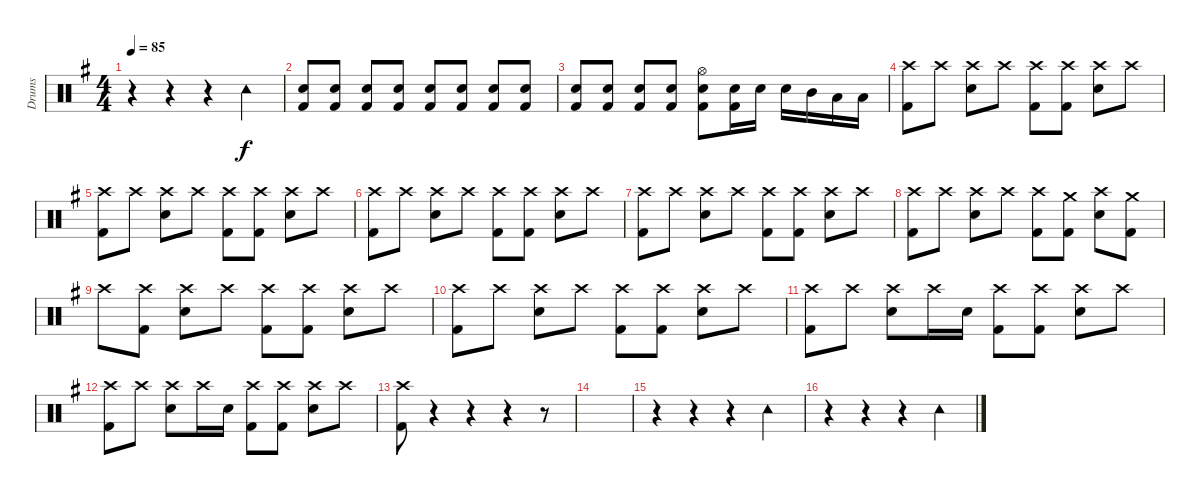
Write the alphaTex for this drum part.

\track ("Drums" "Drums") {instrument percussion}
\staff {score}
\articulation defaults
\ts (4 4)
\tempo 85
\clef neutral
\ks g
r.4{dy f volume 4} r.4 r.4 "Tambourine (hit)".4 |
("Snare (hit) 2" "Kick (hit) 2").8{volume 15} ("Snare (hit) 2" "Kick (hit) 2").8 ("Snare (hit) 2" "Kick (hit) 2").8 ("Snare (hit) 2" "Kick (hit) 2").8 ("Snare (hit) 2" "Kick (hit) 2").8 ("Snare (hit) 2" "Kick (hit) 2").8 ("Snare (hit) 2" "Kick (hit) 2").8 ("Snare (hit) 2" "Kick (hit) 2").8 |
("Snare (hit) 2" "Kick (hit) 2").8 ("Snare (hit) 2" "Kick (hit) 2").8 ("Snare (hit) 2" "Kick (hit) 2").8 ("Snare (hit) 2" "Kick (hit) 2").8 ("Hi-Hat (open)" "Snare (hit) 2" "Kick (hit) 2").8 ("Snare (hit) 2" "Kick (hit) 2").16 "Snare (hit) 2".16 "Snare (hit) 2".16 "Mid Tom (hit)".16 "Low Tom (hit)".16 "Low Tom (hit)".16 |
("Crash high (hit)" "Kick (hit) 2").8 "Crash high (hit)".8 ("Crash high (hit)" "Snare (hit) 2").8 "Crash high (hit)".8 ("Crash high (hit)" "Kick (hit) 2").8 ("Crash high (hit)" "Kick (hit) 2").8 ("Crash high (hit)" "Snare (hit) 2").8 "Crash high (hit)".8 |
("Crash high (hit)" "Kick (hit) 2").8 "Crash high (hit)".8 ("Crash high (hit)" "Snare (hit) 2").8 "Crash high (hit)".8 ("Crash high (hit)" "Kick (hit) 2").8 ("Crash high (hit)" "Kick (hit) 2").8 ("Crash high (hit)" "Snare (hit) 2").8 "Crash high (hit)".8 |
("Crash high (hit)" "Kick (hit) 2").8 "Crash high (hit)".8 ("Crash high (hit)" "Snare (hit) 2").8 "Crash high (hit)".8 ("Crash high (hit)" "Kick (hit) 2").8 ("Crash high (hit)" "Kick (hit) 2").8 ("Crash high (hit)" "Snare (hit) 2").8 "Crash high (hit)".8 |
("Crash high (hit)" "Kick (hit) 2").8 "Crash high (hit)".8 ("Crash high (hit)" "Snare (hit) 2").8 "Crash high (hit)".8 ("Crash high (hit)" "Kick (hit) 2").8 ("Crash high (hit)" "Kick (hit) 2").8 ("Crash high (hit)" "Snare (hit) 2").8 "Crash high (hit)".8 |
("Crash high (hit)" "Kick (hit) 2").8 "Crash high (hit)".8 ("Crash high (hit)" "Snare (hit) 2").8 "Crash high (hit)".8 ("Crash high (hit)" "Kick (hit) 2").8 ("Crash medium (hit)" "Kick (hit) 2").8 ("Crash high (hit)" "Snare (hit) 2").8 ("Crash medium (hit)" "Kick (hit) 2").8 |
"Crash high (hit)".8 ("Crash high (hit)" "Kick (hit) 2").8 ("Crash high (hit)" "Snare (hit) 2").8 "Crash high (hit)".8 ("Crash high (hit)" "Kick (hit) 2").8 ("Crash high (hit)" "Kick (hit) 2").8 ("Crash high (hit)" "Snare (hit) 2").8 "Crash high (hit)".8 |
("Crash high (hit)" "Kick (hit) 2").8 "Crash high (hit)".8 ("Crash high (hit)" "Snare (hit) 2").8 "Crash high (hit)".8 ("Crash high (hit)" "Kick (hit) 2").8 ("Crash high (hit)" "Kick (hit) 2").8 ("Crash high (hit)" "Snare (hit) 2").8 "Crash high (hit)".8 |
("Crash high (hit)" "Kick (hit) 2").8 "Crash high (hit)".8 ("Crash high (hit)" "Snare (hit) 2").8 "Crash high (hit)".16 "Snare (hit) 2".16 ("Crash high (hit)" "Kick (hit) 2").8 ("Crash high (hit)" "Kick (hit) 2").8 ("Crash high (hit)" "Snare (hit) 2").8 "Crash high (hit)".8 |
("Crash high (hit)" "Kick (hit) 2").8 "Crash high (hit)".8 ("Crash high (hit)" "Snare (hit) 2").8 "Crash high (hit)".16 "Snare (hit) 2".16 ("Crash high (hit)" "Kick (hit) 2").8 ("Crash high (hit)" "Kick (hit) 2").8 ("Crash high (hit)" "Snare (hit) 2").8 "Crash high (hit)".8 |
("Crash high (hit)" "Kick (hit) 2").8 r.4 r.4 r.4 r.8 |
|
r.4{volume 8} r.4 r.4 "Tambourine (hit)".4 |
r.4 r.4 r.4 "Tambourine (hit)".4
